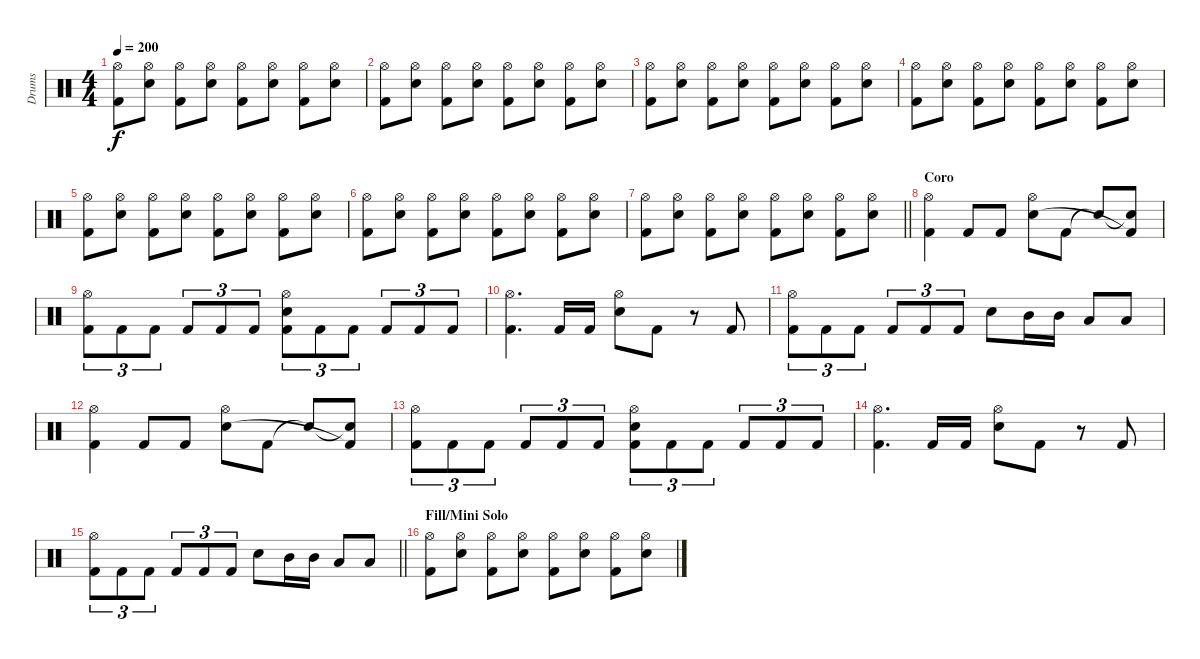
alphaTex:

\track ("Drums" "Drums") {instrument percussion}
\staff {score}
\articulation defaults
\ts (4 4)
\tempo 200
\clef neutral
\ks c
("Hi-Hat (open)" "Kick (hit) 2").8{dy f} ("Hi-Hat (open)" "Electric Snare (hit)").8 ("Hi-Hat (open)" "Kick (hit) 2").8 ("Hi-Hat (open)" "Electric Snare (hit)").8 ("Hi-Hat (open)" "Kick (hit) 2").8 ("Hi-Hat (open)" "Electric Snare (hit)").8 ("Hi-Hat (open)" "Kick (hit) 2").8 ("Hi-Hat (open)" "Electric Snare (hit)").8 |
("Hi-Hat (open)" "Kick (hit) 2").8 ("Hi-Hat (open)" "Electric Snare (hit)").8 ("Hi-Hat (open)" "Kick (hit) 2").8 ("Hi-Hat (open)" "Electric Snare (hit)").8 ("Hi-Hat (open)" "Kick (hit) 2").8 ("Hi-Hat (open)" "Electric Snare (hit)").8 ("Hi-Hat (open)" "Kick (hit) 2").8 ("Hi-Hat (open)" "Electric Snare (hit)").8 |
("Hi-Hat (open)" "Kick (hit) 2").8 ("Hi-Hat (open)" "Electric Snare (hit)").8 ("Hi-Hat (open)" "Kick (hit) 2").8 ("Hi-Hat (open)" "Electric Snare (hit)").8 ("Hi-Hat (open)" "Kick (hit) 2").8 ("Hi-Hat (open)" "Electric Snare (hit)").8 ("Hi-Hat (open)" "Kick (hit) 2").8 ("Hi-Hat (open)" "Electric Snare (hit)").8 |
("Hi-Hat (open)" "Kick (hit) 2").8 ("Hi-Hat (open)" "Electric Snare (hit)").8 ("Hi-Hat (open)" "Kick (hit) 2").8 ("Hi-Hat (open)" "Electric Snare (hit)").8 ("Hi-Hat (open)" "Kick (hit) 2").8 ("Hi-Hat (open)" "Electric Snare (hit)").8 ("Hi-Hat (open)" "Kick (hit) 2").8 ("Hi-Hat (open)" "Electric Snare (hit)").8 |
("Hi-Hat (open)" "Kick (hit) 2").8 ("Hi-Hat (open)" "Electric Snare (hit)").8 ("Hi-Hat (open)" "Kick (hit) 2").8 ("Hi-Hat (open)" "Electric Snare (hit)").8 ("Hi-Hat (open)" "Kick (hit) 2").8 ("Hi-Hat (open)" "Electric Snare (hit)").8 ("Hi-Hat (open)" "Kick (hit) 2").8 ("Hi-Hat (open)" "Electric Snare (hit)").8 |
("Hi-Hat (open)" "Kick (hit) 2").8 ("Hi-Hat (open)" "Electric Snare (hit)").8 ("Hi-Hat (open)" "Kick (hit) 2").8 ("Hi-Hat (open)" "Electric Snare (hit)").8 ("Hi-Hat (open)" "Kick (hit) 2").8 ("Hi-Hat (open)" "Electric Snare (hit)").8 ("Hi-Hat (open)" "Kick (hit) 2").8 ("Hi-Hat (open)" "Electric Snare (hit)").8 |
\barLineRight lightlight
("Hi-Hat (open)" "Kick (hit) 2").8 ("Hi-Hat (open)" "Electric Snare (hit)").8 ("Hi-Hat (open)" "Kick (hit) 2").8 ("Hi-Hat (open)" "Electric Snare (hit)").8 ("Hi-Hat (open)" "Kick (hit) 2").8 ("Hi-Hat (open)" "Electric Snare (hit)").8 ("Hi-Hat (open)" "Kick (hit) 2").8 ("Hi-Hat (open)" "Electric Snare (hit)").8 |
\section ("" "Coro")
("Hi-Hat (open)" "Kick (hit) 2").4 "Kick (hit) 2".8 "Kick (hit) 2".8 ("Hi-Hat (open)" "Electric Snare (hit)").8 "Kick (hit) 2".8 "Snare (hit)"{t}.8 ("Snare (hit)"{t} "Kick (hit) 2"{t}).8 |
("Hi-Hat (open)" "Kick (hit) 2").8{tu (3 2)} "Kick (hit) 2".8{tu (3 2)} "Kick (hit) 2".8{tu (3 2)} "Kick (hit) 2".8{tu (3 2)} "Kick (hit) 2".8{tu (3 2)} "Kick (hit) 2".8{tu (3 2)} ("Hi-Hat (open)" "Electric Snare (hit)" "Kick (hit) 2").8{tu (3 2)} "Kick (hit) 2".8{tu (3 2)} "Kick (hit) 2".8{tu (3 2)} "Kick (hit) 2".8{tu (3 2)} "Kick (hit) 2".8{tu (3 2)} "Kick (hit) 2".8{tu (3 2)} |
("Hi-Hat (open)" "Kick (hit) 2").4{d} "Kick (hit) 2".16 "Kick (hit) 2".16 ("Hi-Hat (open)" "Electric Snare (hit)").8 "Kick (hit) 2".8 r.8 "Kick (hit) 2".8 |
("Hi-Hat (open)" "Kick (hit) 2").8{tu (3 2)} "Kick (hit) 2".8{tu (3 2)} "Kick (hit) 2".8{tu (3 2)} "Kick (hit) 2".8{tu (3 2)} "Kick (hit) 2".8{tu (3 2)} "Kick (hit) 2".8{tu (3 2)} "Electric Snare (hit)".8 "Mid Tom (hit)".16 "Mid Tom (hit)".16 "Low Tom (hit)".8 "Low Tom (hit)".8 |
("Hi-Hat (open)" "Kick (hit) 2").4 "Kick (hit) 2".8 "Kick (hit) 2".8 ("Hi-Hat (open)" "Electric Snare (hit)").8 "Kick (hit) 2".8 "Snare (hit)"{t}.8 ("Snare (hit)"{t} "Kick (hit) 2"{t}).8 |
("Hi-Hat (open)" "Kick (hit) 2").8{tu (3 2)} "Kick (hit) 2".8{tu (3 2)} "Kick (hit) 2".8{tu (3 2)} "Kick (hit) 2".8{tu (3 2)} "Kick (hit) 2".8{tu (3 2)} "Kick (hit) 2".8{tu (3 2)} ("Hi-Hat (open)" "Electric Snare (hit)" "Kick (hit) 2").8{tu (3 2)} "Kick (hit) 2".8{tu (3 2)} "Kick (hit) 2".8{tu (3 2)} "Kick (hit) 2".8{tu (3 2)} "Kick (hit) 2".8{tu (3 2)} "Kick (hit) 2".8{tu (3 2)} |
("Hi-Hat (open)" "Kick (hit) 2").4{d} "Kick (hit) 2".16 "Kick (hit) 2".16 ("Hi-Hat (open)" "Electric Snare (hit)").8 "Kick (hit) 2".8 r.8 "Kick (hit) 2".8 |
\barLineRight lightlight
("Hi-Hat (open)" "Kick (hit) 2").8{tu (3 2)} "Kick (hit) 2".8{tu (3 2)} "Kick (hit) 2".8{tu (3 2)} "Kick (hit) 2".8{tu (3 2)} "Kick (hit) 2".8{tu (3 2)} "Kick (hit) 2".8{tu (3 2)} "Electric Snare (hit)".8 "Mid Tom (hit)".16 "Mid Tom (hit)".16 "Low Tom (hit)".8 "Low Tom (hit)".8 |
\section ("" "Fill/Mini Solo")
("Hi-Hat (open)" "Kick (hit) 2").8 ("Hi-Hat (open)" "Electric Snare (hit)").8 ("Hi-Hat (open)" "Kick (hit) 2").8 ("Hi-Hat (open)" "Electric Snare (hit)").8 ("Hi-Hat (open)" "Kick (hit) 2").8 ("Hi-Hat (open)" "Electric Snare (hit)").8 ("Hi-Hat (open)" "Kick (hit) 2").8 ("Hi-Hat (open)" "Electric Snare (hit)").8
